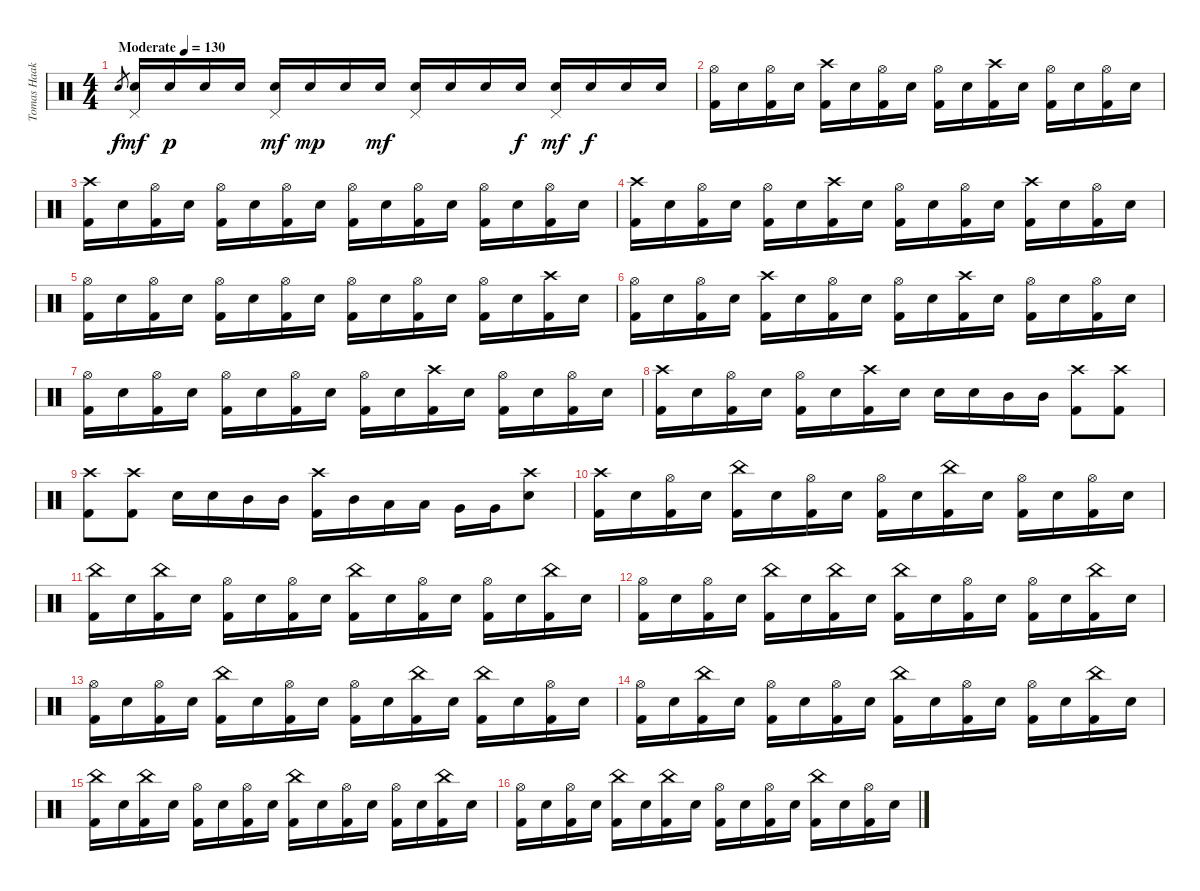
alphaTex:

\track ("Tomas Haake" "Tomas Haak") {instrument percussion}
\staff {score}
\articulation defaults
\ts (4 4)
\tempo (130 "Moderate")
\clef neutral
\ks c "Electric Snare (hit)".8{gr dy f}
("Electric Snare (hit)" "Pedal Hi-Hat (hit)").16{dy mf} "Electric Snare (hit)".16{dy p} "Electric Snare (hit)".16 "Electric Snare (hit)".16 ("Electric Snare (hit)" "Pedal Hi-Hat (hit)").16{dy mf} "Electric Snare (hit)".16{dy mp} "Electric Snare (hit)".16 "Electric Snare (hit)".16{dy mf} ("Electric Snare (hit)" "Pedal Hi-Hat (hit)").16 "Electric Snare (hit)".16 "Electric Snare (hit)".16 "Electric Snare (hit)".16{dy f} ("Electric Snare (hit)" "Pedal Hi-Hat (hit)").16{dy mf} "Electric Snare (hit)".16{dy f} "Electric Snare (hit)".16 "Electric Snare (hit)".16 |
("Hi-Hat (open)" "Kick (hit) 2").16 "Electric Snare (hit)".16 ("Hi-Hat (open)" "Kick (hit) 2").16 "Electric Snare (hit)".16 ("Crash high (hit)" "Kick (hit) 2").16 "Electric Snare (hit)".16 ("Hi-Hat (open)" "Kick (hit) 2").16 "Electric Snare (hit)".16 ("Hi-Hat (open)" "Kick (hit) 2").16 "Electric Snare (hit)".16 ("Crash high (hit)" "Kick (hit) 2").16 "Electric Snare (hit)".16 ("Hi-Hat (open)" "Kick (hit) 2").16 "Electric Snare (hit)".16 ("Hi-Hat (open)" "Kick (hit) 2").16 "Electric Snare (hit)".16 |
("Crash high (hit)" "Kick (hit) 2").16 "Electric Snare (hit)".16 ("Hi-Hat (open)" "Kick (hit) 2").16 "Electric Snare (hit)".16 ("Hi-Hat (open)" "Kick (hit) 2").16 "Electric Snare (hit)".16 ("Hi-Hat (open)" "Kick (hit) 2").16 "Electric Snare (hit)".16 ("Hi-Hat (open)" "Kick (hit) 2").16 "Electric Snare (hit)".16 ("Hi-Hat (open)" "Kick (hit) 2").16 "Electric Snare (hit)".16 ("Hi-Hat (open)" "Kick (hit) 2").16 "Electric Snare (hit)".16 ("Hi-Hat (open)" "Kick (hit) 2").16 "Electric Snare (hit)".16 |
("Crash high (hit)" "Kick (hit) 2").16 "Electric Snare (hit)".16 ("Hi-Hat (open)" "Kick (hit) 2").16 "Electric Snare (hit)".16 ("Hi-Hat (open)" "Kick (hit) 2").16 "Electric Snare (hit)".16 ("Crash high (hit)" "Kick (hit) 2").16 "Electric Snare (hit)".16 ("Hi-Hat (open)" "Kick (hit) 2").16 "Electric Snare (hit)".16 ("Hi-Hat (open)" "Kick (hit) 2").16 "Electric Snare (hit)".16 ("Crash high (hit)" "Kick (hit) 2").16 "Electric Snare (hit)".16 ("Hi-Hat (open)" "Kick (hit) 2").16 "Electric Snare (hit)".16 |
("Hi-Hat (open)" "Kick (hit) 2").16 "Electric Snare (hit)".16 ("Hi-Hat (open)" "Kick (hit) 2").16 "Electric Snare (hit)".16 ("Hi-Hat (open)" "Kick (hit) 2").16 "Electric Snare (hit)".16 ("Hi-Hat (open)" "Kick (hit) 2").16 "Electric Snare (hit)".16 ("Hi-Hat (open)" "Kick (hit) 2").16 "Electric Snare (hit)".16 ("Hi-Hat (open)" "Kick (hit) 2").16 "Electric Snare (hit)".16 ("Hi-Hat (open)" "Kick (hit) 2").16 "Electric Snare (hit)".16 ("Crash high (hit)" "Kick (hit) 2").16 "Electric Snare (hit)".16 |
("Hi-Hat (open)" "Kick (hit) 2").16 "Electric Snare (hit)".16 ("Hi-Hat (open)" "Kick (hit) 2").16 "Electric Snare (hit)".16 ("Crash high (hit)" "Kick (hit) 2").16 "Electric Snare (hit)".16 ("Hi-Hat (open)" "Kick (hit) 2").16 "Electric Snare (hit)".16 ("Hi-Hat (open)" "Kick (hit) 2").16 "Electric Snare (hit)".16 ("Crash high (hit)" "Kick (hit) 2").16 "Electric Snare (hit)".16 ("Hi-Hat (open)" "Kick (hit) 2").16 "Electric Snare (hit)".16 ("Hi-Hat (open)" "Kick (hit) 2").16 "Electric Snare (hit)".16 |
("Hi-Hat (open)" "Kick (hit) 2").16 "Electric Snare (hit)".16 ("Hi-Hat (open)" "Kick (hit) 2").16 "Electric Snare (hit)".16 ("Hi-Hat (open)" "Kick (hit) 2").16 "Electric Snare (hit)".16 ("Hi-Hat (open)" "Kick (hit) 2").16 "Electric Snare (hit)".16 ("Hi-Hat (open)" "Kick (hit) 2").16 "Electric Snare (hit)".16 ("Crash high (hit)" "Kick (hit) 2").16 "Electric Snare (hit)".16 ("Hi-Hat (open)" "Kick (hit) 2").16 "Electric Snare (hit)".16 ("Hi-Hat (open)" "Kick (hit) 2").16 "Electric Snare (hit)".16 |
("Crash high (hit)" "Kick (hit) 2").16 "Electric Snare (hit)".16 ("Hi-Hat (open)" "Kick (hit) 2").16 "Electric Snare (hit)".16 ("Hi-Hat (open)" "Kick (hit) 2").16 "Electric Snare (hit)".16 ("Crash high (hit)" "Kick (hit) 2").16 "Electric Snare (hit)".16 "Electric Snare (hit)".16 "Electric Snare (hit)".16 "Mid Tom (hit)".16 "Mid Tom (hit)".16 ("Crash high (hit)" "Kick (hit) 2").8 ("Crash high (hit)" "Kick (hit) 2").8 |
("Crash high (hit)" "Kick (hit) 2").8 ("Crash high (hit)" "Kick (hit) 2").8 "Electric Snare (hit)".16 "Electric Snare (hit)".16 "Mid Tom (hit)".16 "Mid Tom (hit)".16 ("Crash high (hit)" "Kick (hit) 2").16 "Mid Tom (hit)".16 "Low Tom (hit)".16 "Low Tom (hit)".16 "Very Low Tom (hit)".16 "Very Low Tom (hit)".16 ("Crash high (hit)" "Electric Snare (hit)").8 |
("Crash high (hit)" "Kick (hit) 2").16 "Electric Snare (hit)".16 ("Hi-Hat (open)" "Kick (hit) 2").16 "Electric Snare (hit)".16 ("China (hit)" "Kick (hit) 2").16 "Electric Snare (hit)".16 ("Hi-Hat (open)" "Kick (hit) 2").16 "Electric Snare (hit)".16 ("Hi-Hat (open)" "Kick (hit) 2").16 "Electric Snare (hit)".16 ("China (hit)" "Kick (hit) 2").16 "Electric Snare (hit)".16 ("Hi-Hat (open)" "Kick (hit) 2").16 "Electric Snare (hit)".16 ("Hi-Hat (open)" "Kick (hit) 2").16 "Electric Snare (hit)".16 |
("China (hit)" "Kick (hit) 2").16 "Electric Snare (hit)".16 ("China (hit)" "Kick (hit) 2").16 "Electric Snare (hit)".16 ("Hi-Hat (open)" "Kick (hit) 2").16 "Electric Snare (hit)".16 ("Hi-Hat (open)" "Kick (hit) 2").16 "Electric Snare (hit)".16 ("China (hit)" "Kick (hit) 2").16 "Electric Snare (hit)".16 ("Hi-Hat (open)" "Kick (hit) 2").16 "Electric Snare (hit)".16 ("Hi-Hat (open)" "Kick (hit) 2").16 "Electric Snare (hit)".16 ("China (hit)" "Kick (hit) 2").16 "Electric Snare (hit)".16 |
("Hi-Hat (open)" "Kick (hit) 2").16 "Electric Snare (hit)".16 ("Hi-Hat (open)" "Kick (hit) 2").16 "Electric Snare (hit)".16 ("China (hit)" "Kick (hit) 2").16 "Electric Snare (hit)".16 ("China (hit)" "Kick (hit) 2").16 "Electric Snare (hit)".16 ("China (hit)" "Kick (hit) 2").16 "Electric Snare (hit)".16 ("Hi-Hat (open)" "Kick (hit) 2").16 "Electric Snare (hit)".16 ("Hi-Hat (open)" "Kick (hit) 2").16 "Electric Snare (hit)".16 ("China (hit)" "Kick (hit) 2").16 "Electric Snare (hit)".16 |
("Hi-Hat (open)" "Kick (hit) 2").16 "Electric Snare (hit)".16 ("Hi-Hat (open)" "Kick (hit) 2").16 "Electric Snare (hit)".16 ("China (hit)" "Kick (hit) 2").16 "Electric Snare (hit)".16 ("Hi-Hat (open)" "Kick (hit) 2").16 "Electric Snare (hit)".16 ("Hi-Hat (open)" "Kick (hit) 2").16 "Electric Snare (hit)".16 ("China (hit)" "Kick (hit) 2").16 "Electric Snare (hit)".16 ("China (hit)" "Kick (hit) 2").16 "Electric Snare (hit)".16 ("Hi-Hat (open)" "Kick (hit) 2").16 "Electric Snare (hit)".16 |
("Hi-Hat (open)" "Kick (hit) 2").16 "Electric Snare (hit)".16 ("China (hit)" "Kick (hit) 2").16 "Electric Snare (hit)".16 ("Hi-Hat (open)" "Kick (hit) 2").16 "Electric Snare (hit)".16 ("Hi-Hat (open)" "Kick (hit) 2").16 "Electric Snare (hit)".16 ("China (hit)" "Kick (hit) 2").16 "Electric Snare (hit)".16 ("Hi-Hat (open)" "Kick (hit) 2").16 "Electric Snare (hit)".16 ("Hi-Hat (open)" "Kick (hit) 2").16 "Electric Snare (hit)".16 ("China (hit)" "Kick (hit) 2").16 "Electric Snare (hit)".16 |
("China (hit)" "Kick (hit) 2").16 "Electric Snare (hit)".16 ("China (hit)" "Kick (hit) 2").16 "Electric Snare (hit)".16 ("Hi-Hat (open)" "Kick (hit) 2").16 "Electric Snare (hit)".16 ("Hi-Hat (open)" "Kick (hit) 2").16 "Electric Snare (hit)".16 ("China (hit)" "Kick (hit) 2").16 "Electric Snare (hit)".16 ("Hi-Hat (open)" "Kick (hit) 2").16 "Electric Snare (hit)".16 ("Hi-Hat (open)" "Kick (hit) 2").16 "Electric Snare (hit)".16 ("China (hit)" "Kick (hit) 2").16 "Electric Snare (hit)".16 |
("Hi-Hat (open)" "Kick (hit) 2").16 "Electric Snare (hit)".16 ("Hi-Hat (open)" "Kick (hit) 2").16 "Electric Snare (hit)".16 ("China (hit)" "Kick (hit) 2").16 "Electric Snare (hit)".16 ("China (hit)" "Kick (hit) 2").16 "Electric Snare (hit)".16 ("Hi-Hat (open)" "Kick (hit) 2").16 "Electric Snare (hit)".16 ("Hi-Hat (open)" "Kick (hit) 2").16 "Electric Snare (hit)".16 ("China (hit)" "Kick (hit) 2").16 "Electric Snare (hit)".16 ("Hi-Hat (open)" "Kick (hit) 2").16 "Electric Snare (hit)".16
